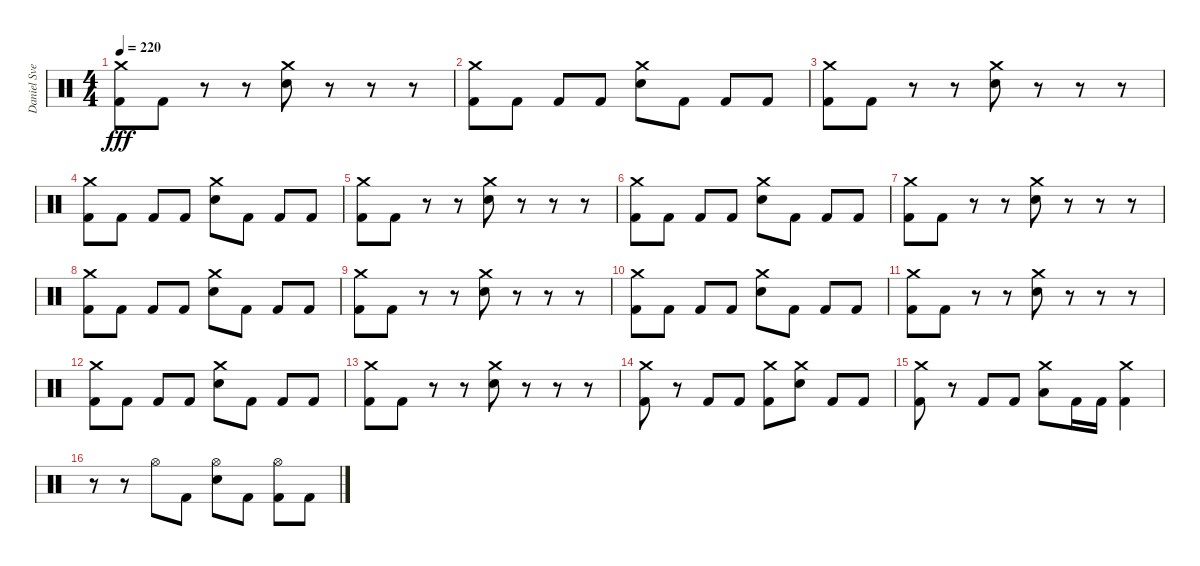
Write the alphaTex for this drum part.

\track ("Daniel Svensson" "Daniel Sve") {instrument percussion}
\staff {score}
\articulation defaults
\ts (4 4)
\tempo 220
\clef neutral
\ks c
("Crash medium (hit)" "Kick (hit) 2").8{dy fff} "Kick (hit) 2".8 r.8 r.8 ("Crash medium (hit)" "Electric Snare (hit)").8 r.8 r.8 r.8 |
("Crash medium (hit)" "Kick (hit) 2").8 "Kick (hit) 2".8 "Kick (hit) 2".8 "Kick (hit) 2".8 ("Crash medium (hit)" "Electric Snare (hit)").8 "Kick (hit) 2".8 "Kick (hit) 2".8 "Kick (hit) 2".8 |
("Crash medium (hit)" "Kick (hit) 2").8 "Kick (hit) 2".8 r.8 r.8 ("Crash medium (hit)" "Electric Snare (hit)").8 r.8 r.8 r.8 |
("Crash medium (hit)" "Kick (hit) 2").8 "Kick (hit) 2".8 "Kick (hit) 2".8 "Kick (hit) 2".8 ("Crash medium (hit)" "Electric Snare (hit)").8 "Kick (hit) 2".8 "Kick (hit) 2".8 "Kick (hit) 2".8 |
("Crash medium (hit)" "Kick (hit) 2").8 "Kick (hit) 2".8 r.8 r.8 ("Crash medium (hit)" "Electric Snare (hit)").8 r.8 r.8 r.8 |
("Crash medium (hit)" "Kick (hit) 2").8 "Kick (hit) 2".8 "Kick (hit) 2".8 "Kick (hit) 2".8 ("Crash medium (hit)" "Electric Snare (hit)").8 "Kick (hit) 2".8 "Kick (hit) 2".8 "Kick (hit) 2".8 |
("Crash medium (hit)" "Kick (hit) 2").8 "Kick (hit) 2".8 r.8 r.8 ("Crash medium (hit)" "Electric Snare (hit)").8 r.8 r.8 r.8 |
("Crash medium (hit)" "Kick (hit) 2").8 "Kick (hit) 2".8 "Kick (hit) 2".8 "Kick (hit) 2".8 ("Crash medium (hit)" "Electric Snare (hit)").8 "Kick (hit) 2".8 "Kick (hit) 2".8 "Kick (hit) 2".8 |
("Crash medium (hit)" "Kick (hit) 2").8 "Kick (hit) 2".8 r.8 r.8 ("Crash medium (hit)" "Electric Snare (hit)").8 r.8 r.8 r.8 |
("Crash medium (hit)" "Kick (hit) 2").8 "Kick (hit) 2".8 "Kick (hit) 2".8 "Kick (hit) 2".8 ("Crash medium (hit)" "Electric Snare (hit)").8 "Kick (hit) 2".8 "Kick (hit) 2".8 "Kick (hit) 2".8 |
("Crash medium (hit)" "Kick (hit) 2").8 "Kick (hit) 2".8 r.8 r.8 ("Crash medium (hit)" "Electric Snare (hit)").8 r.8 r.8 r.8 |
("Crash medium (hit)" "Kick (hit) 2").8 "Kick (hit) 2".8 "Kick (hit) 2".8 "Kick (hit) 2".8 ("Crash medium (hit)" "Electric Snare (hit)").8 "Kick (hit) 2".8 "Kick (hit) 2".8 "Kick (hit) 2".8 |
("Crash medium (hit)" "Kick (hit) 2").8 "Kick (hit) 2".8 r.8 r.8 ("Crash medium (hit)" "Electric Snare (hit)").8 r.8 r.8 r.8 |
("Crash medium (hit)" "Kick (hit) 2").8 r.8 "Kick (hit) 2".8 "Kick (hit) 2".8 ("Crash medium (hit)" "Kick (hit) 2").8 ("Crash medium (hit)" "Electric Snare (hit)").8 "Kick (hit) 2".8 "Kick (hit) 2".8 |
("Crash medium (hit)" "Kick (hit) 2").8 r.8 "Kick (hit) 2".8 "Kick (hit) 2".8 ("Crash medium (hit)" "Low Floor Tom (hit)").8 "Kick (hit) 2".16 "Kick (hit) 2".16 ("Crash medium (hit)" "Kick (hit) 2").4 |
r.8 r.8 "Hi-Hat (open)".8 "Kick (hit) 2".8 ("Hi-Hat (open)" "Electric Snare (hit)").8 "Kick (hit) 2".8 ("Hi-Hat (open)" "Kick (hit) 2").8 "Kick (hit) 2".8
